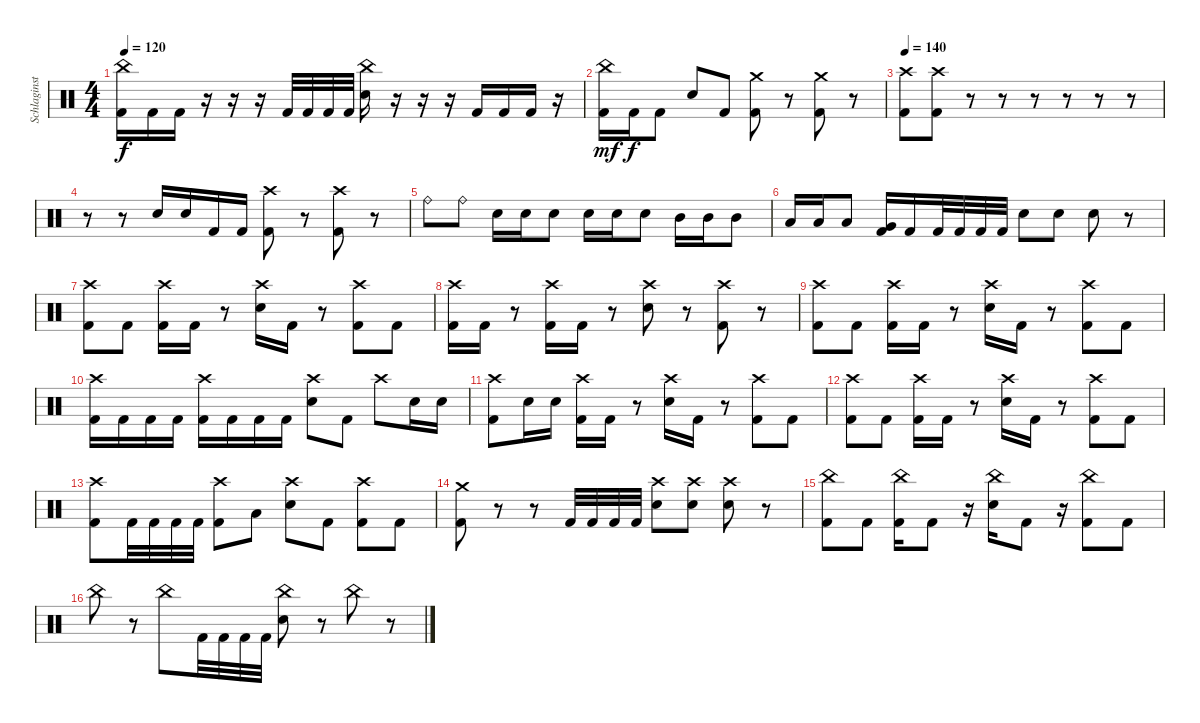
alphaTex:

\track ("Schlaginstrumente - Auswahl" "Schlaginst") {instrument percussion}
\staff {score}
\articulation defaults
\ts (4 4)
\tempo 120
\clef neutral
\ks c
("China (hit)" "Kick (hit) 2").16{dy f} "Kick (hit) 2".16 "Kick (hit) 2".16 r.16 r.16 r.16 "Kick (hit) 2".32 "Kick (hit) 2".32 "Kick (hit) 2".32 "Kick (hit) 2".32 ("China (hit)" "Electric Snare (hit)").16 r.16 r.16 r.16 "Kick (hit) 2".16 "Kick (hit) 2".16 "Kick (hit) 2".16 r.16 |
("China (hit)" "Kick (hit) 2").16{dy mf} "Kick (hit) 2".16{dy f} "Kick (hit) 2".8 "Electric Snare (hit)".8 "Kick (hit) 2".8 ("Crash medium (hit)" "Kick (hit) 2").8 r.8 ("Crash medium (hit)" "Kick (hit) 2").8 r.8 |
\tempo 140
("Crash high (hit)" "Kick (hit) 2").8 ("Crash high (hit)" "Kick (hit) 2").8 r.8 r.8 r.8 r.8 r.8 r.8 |
r.8 r.8 "Electric Snare (hit)".16 "Electric Snare (hit)".16 "Kick (hit) 2".16 "Kick (hit) 2".16 ("Crash high (hit)" "Kick (hit) 2").8 r.8 ("Crash high (hit)" "Kick (hit) 2").8 r.8 |
"Ride (bell)".8 "Ride (bell)".8 "Electric Snare (hit)".16 "Electric Snare (hit)".16 "Electric Snare (hit)".8 "Electric Snare (hit)".16 "Electric Snare (hit)".16 "Electric Snare (hit)".8 "Mid Tom (hit)".16 "Mid Tom (hit)".16 "Mid Tom (hit)".8 |
"Low Tom (hit)".16 "Low Tom (hit)".16 "Low Tom (hit)".8 ("Very Low Tom (hit)" "Kick (hit) 2").16 "Kick (hit) 2".16 "Kick (hit) 2".32 "Kick (hit) 2".32 "Kick (hit) 2".32 "Kick (hit) 2".32 "Electric Snare (hit)".8 "Electric Snare (hit)".8 "Electric Snare (hit)".8 r.8 |
("Crash high (hit)" "Kick (hit) 2").8 "Kick (hit) 2".8 ("Crash high (hit)" "Kick (hit) 2").16 "Kick (hit) 2".16 r.8 ("Crash high (hit)" "Electric Snare (hit)").16 "Kick (hit) 2".16 r.8 ("Crash high (hit)" "Kick (hit) 2").8 "Kick (hit) 2".8 |
("Crash high (hit)" "Kick (hit) 2").16 "Kick (hit) 2".16 r.8 ("Crash high (hit)" "Kick (hit) 2").16 "Kick (hit) 2".16 r.8 ("Crash high (hit)" "Electric Snare (hit)").8 r.8 ("Crash high (hit)" "Kick (hit) 2").8 r.8 |
("Crash high (hit)" "Kick (hit) 2").8 "Kick (hit) 2".8 ("Crash high (hit)" "Kick (hit) 2").16 "Kick (hit) 2".16 r.8 ("Crash high (hit)" "Electric Snare (hit)").16 "Kick (hit) 2".16 r.8 ("Crash high (hit)" "Kick (hit) 2").8 "Kick (hit) 2".8 |
("Crash high (hit)" "Kick (hit) 2").16 "Kick (hit) 2".16 "Kick (hit) 2".16 "Kick (hit) 2".16 ("Crash high (hit)" "Kick (hit) 2").16 "Kick (hit) 2".16 "Kick (hit) 2".16 "Kick (hit) 2".16 ("Crash high (hit)" "Electric Snare (hit)").8 "Kick (hit) 2".8 "Crash high (hit)".8 "Electric Snare (hit)".16 "Electric Snare (hit)".16 |
("Crash high (hit)" "Kick (hit) 2").8 "Electric Snare (hit)".16 "Electric Snare (hit)".16 ("Crash high (hit)" "Kick (hit) 2").16 "Kick (hit) 2".16 r.8 ("Crash high (hit)" "Electric Snare (hit)").16 "Kick (hit) 2".16 r.8 ("Crash high (hit)" "Kick (hit) 2").8 "Kick (hit) 2".8 |
("Crash high (hit)" "Kick (hit) 2").8 "Kick (hit) 2".8 ("Crash high (hit)" "Kick (hit) 2").16 "Kick (hit) 2".16 r.8 ("Crash high (hit)" "Electric Snare (hit)").16 "Kick (hit) 2".16 r.8 ("Crash high (hit)" "Kick (hit) 2").8 "Kick (hit) 2".8 |
("Crash high (hit)" "Kick (hit) 2").8 "Kick (hit) 2".32 "Kick (hit) 2".32 "Kick (hit) 2".32 "Kick (hit) 2".32 ("Crash high (hit)" "Kick (hit) 2").8 "Low Tom (hit)".8 ("Crash high (hit)" "Electric Snare (hit)").8 "Kick (hit) 2".8 ("Crash high (hit)" "Kick (hit) 2").8 "Kick (hit) 2".8 |
("Crash medium (hit)" "Kick (hit) 2").8 r.8 r.8 "Kick (hit) 2".32 "Kick (hit) 2".32 "Kick (hit) 2".32 "Kick (hit) 2".32 ("Crash high (hit)" "Electric Snare (hit)").8 ("Crash high (hit)" "Electric Snare (hit)").8 ("Crash high (hit)" "Electric Snare (hit)").8 r.8 |
("China (hit)" "Kick (hit) 2").8 "Kick (hit) 2".8 ("China (hit)" "Kick (hit) 2").16 "Kick (hit) 2".8 r.16 ("China (hit)" "Electric Snare (hit)").16 "Kick (hit) 2".8 r.16 ("China (hit)" "Kick (hit) 2").8 "Kick (hit) 2".8 |
"China (hit)".8 r.8 "China (hit)".8 "Kick (hit) 2".32 "Kick (hit) 2".32 "Kick (hit) 2".32 "Kick (hit) 2".32 ("China (hit)" "Electric Snare (hit)").8 r.8 "China (hit)".8 r.8
